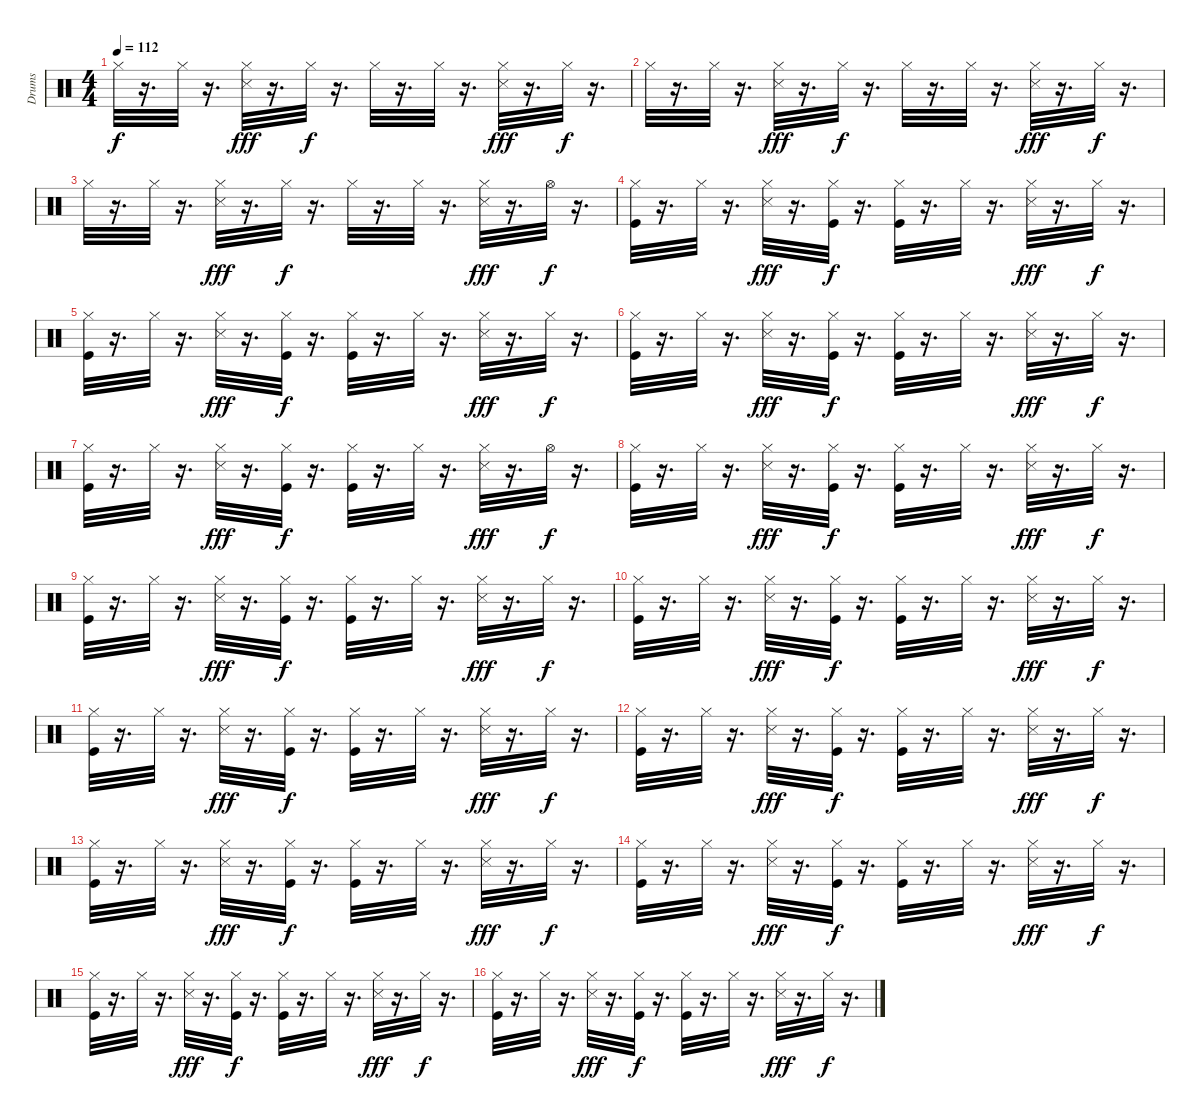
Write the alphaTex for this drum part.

\track ("Drums" "Drums") {instrument percussion}
\staff {score}
\articulation defaults
\ts (4 4)
\tempo 112
\clef neutral
\ks c "Hi-Hat (closed)".32{dy f}
r.16{d} "Hi-Hat (closed)".32 r.16{d} ("Hi-Hat (closed)" "Snare (side stick) 3").32{dy fff} r.16{d} "Hi-Hat (closed)".32{dy f} r.16{d} "Hi-Hat (closed)".32 r.16{d} "Hi-Hat (closed)".32 r.16{d} ("Snare (side stick) 3" "Hi-Hat (closed)").32{dy fff} r.16{d} "Hi-Hat (closed)".32{dy f} r.16{d} |
"Hi-Hat (closed)".32 r.16{d} "Hi-Hat (closed)".32 r.16{d} ("Hi-Hat (closed)" "Snare (side stick) 3").32{dy fff} r.16{d} "Hi-Hat (closed)".32{dy f} r.16{d} "Hi-Hat (closed)".32 r.16{d} "Hi-Hat (closed)".32 r.16{d} ("Hi-Hat (closed)" "Snare (side stick) 3").32{dy fff} r.16{d} "Hi-Hat (closed)".32{dy f} r.16{d} |
"Hi-Hat (closed)".32 r.16{d} "Hi-Hat (closed)".32 r.16{d} ("Hi-Hat (closed)" "Snare (side stick) 3").32{dy fff} r.16{d} "Hi-Hat (closed)".32{dy f} r.16{d} "Hi-Hat (closed)".32 r.16{d} "Hi-Hat (closed)".32 r.16{d} ("Snare (side stick) 3" "Hi-Hat (closed)").32{dy fff} r.16{d} "Hi-Hat (open)".32{dy f} r.16{d} |
("Kick (hit)" "Hi-Hat (closed)").32 r.16{d} "Hi-Hat (closed)".32 r.16{d} ("Hi-Hat (closed)" "Snare (side stick) 3").32{dy fff} r.16{d} ("Kick (hit)" "Hi-Hat (closed)").32{dy f} r.16{d} ("Kick (hit)" "Hi-Hat (closed)").32 r.16{d} "Hi-Hat (closed)".32 r.16{d} ("Snare (side stick) 3" "Hi-Hat (closed)").32{dy fff} r.16{d} "Hi-Hat (closed)".32{dy f} r.16{d} |
("Kick (hit)" "Hi-Hat (closed)").32 r.16{d} "Hi-Hat (closed)".32 r.16{d} ("Hi-Hat (closed)" "Snare (side stick) 3").32{dy fff} r.16{d} ("Kick (hit)" "Hi-Hat (closed)").32{dy f} r.16{d} ("Kick (hit)" "Hi-Hat (closed)").32 r.16{d} "Hi-Hat (closed)".32 r.16{d} ("Hi-Hat (closed)" "Snare (side stick) 3").32{dy fff} r.16{d} "Hi-Hat (closed)".32{dy f} r.16{d} |
("Kick (hit)" "Hi-Hat (closed)").32 r.16{d} "Hi-Hat (closed)".32 r.16{d} ("Snare (side stick) 3" "Hi-Hat (closed)").32{dy fff} r.16{d} ("Kick (hit)" "Hi-Hat (closed)").32{dy f} r.16{d} ("Kick (hit)" "Hi-Hat (closed)").32 r.16{d} "Hi-Hat (closed)".32 r.16{d} ("Snare (side stick) 3" "Hi-Hat (closed)").32{dy fff} r.16{d} "Hi-Hat (closed)".32{dy f} r.16{d} |
("Kick (hit)" "Hi-Hat (closed)").32 r.16{d} "Hi-Hat (closed)".32 r.16{d} ("Snare (side stick) 3" "Hi-Hat (closed)").32{dy fff} r.16{d} ("Hi-Hat (closed)" "Kick (hit)").32{dy f} r.16{d} ("Hi-Hat (closed)" "Kick (hit)").32 r.16{d} "Hi-Hat (closed)".32 r.16{d} ("Hi-Hat (closed)" "Snare (side stick) 3").32{dy fff} r.16{d} "Hi-Hat (open)".32{dy f} r.16{d} |
("Kick (hit)" "Hi-Hat (closed)").32 r.16{d} "Hi-Hat (closed)".32 r.16{d} ("Snare (side stick) 3" "Hi-Hat (closed)").32{dy fff} r.16{d} ("Hi-Hat (closed)" "Kick (hit)").32{dy f} r.16{d} ("Hi-Hat (closed)" "Kick (hit)").32 r.16{d} "Hi-Hat (closed)".32 r.16{d} ("Hi-Hat (closed)" "Snare (side stick) 3").32{dy fff} r.16{d} "Hi-Hat (closed)".32{dy f} r.16{d} |
("Kick (hit)" "Hi-Hat (closed)").32 r.16{d} "Hi-Hat (closed)".32 r.16{d} ("Snare (side stick) 3" "Hi-Hat (closed)").32{dy fff} r.16{d} ("Hi-Hat (closed)" "Kick (hit)").32{dy f} r.16{d} ("Hi-Hat (closed)" "Kick (hit)").32 r.16{d} "Hi-Hat (closed)".32 r.16{d} ("Hi-Hat (closed)" "Snare (side stick) 3").32{dy fff} r.16{d} "Hi-Hat (closed)".32{dy f} r.16{d} |
("Kick (hit)" "Hi-Hat (closed)").32 r.16{d} "Hi-Hat (closed)".32 r.16{d} ("Snare (side stick) 3" "Hi-Hat (closed)").32{dy fff} r.16{d} ("Hi-Hat (closed)" "Kick (hit)").32{dy f} r.16{d} ("Hi-Hat (closed)" "Kick (hit)").32 r.16{d} "Hi-Hat (closed)".32 r.16{d} ("Hi-Hat (closed)" "Snare (side stick) 3").32{dy fff} r.16{d} "Hi-Hat (closed)".32{dy f} r.16{d} |
("Kick (hit)" "Hi-Hat (closed)").32 r.16{d} "Hi-Hat (closed)".32 r.16{d} ("Snare (side stick) 3" "Hi-Hat (closed)").32{dy fff} r.16{d} ("Hi-Hat (closed)" "Kick (hit)").32{dy f} r.16{d} ("Hi-Hat (closed)" "Kick (hit)").32 r.16{d} "Hi-Hat (closed)".32 r.16{d} ("Hi-Hat (closed)" "Snare (side stick) 3").32{dy fff} r.16{d} "Hi-Hat (closed)".32{dy f} r.16{d} |
("Kick (hit)" "Hi-Hat (closed)").32 r.16{d} "Hi-Hat (closed)".32 r.16{d} ("Snare (side stick) 3" "Hi-Hat (closed)").32{dy fff} r.16{d} ("Hi-Hat (closed)" "Kick (hit)").32{dy f} r.16{d} ("Hi-Hat (closed)" "Kick (hit)").32 r.16{d} "Hi-Hat (closed)".32 r.16{d} ("Hi-Hat (closed)" "Snare (side stick) 3").32{dy fff} r.16{d} "Hi-Hat (closed)".32{dy f} r.16{d} |
("Kick (hit)" "Hi-Hat (closed)").32 r.16{d} "Hi-Hat (closed)".32 r.16{d} ("Snare (side stick) 3" "Hi-Hat (closed)").32{dy fff} r.16{d} ("Hi-Hat (closed)" "Kick (hit)").32{dy f} r.16{d} ("Hi-Hat (closed)" "Kick (hit)").32 r.16{d} "Hi-Hat (closed)".32 r.16{d} ("Hi-Hat (closed)" "Snare (side stick) 3").32{dy fff} r.16{d} "Hi-Hat (closed)".32{dy f} r.16{d} |
("Kick (hit)" "Hi-Hat (closed)").32 r.16{d} "Hi-Hat (closed)".32 r.16{d} ("Snare (side stick) 3" "Hi-Hat (closed)").32{dy fff} r.16{d} ("Hi-Hat (closed)" "Kick (hit)").32{dy f} r.16{d} ("Hi-Hat (closed)" "Kick (hit)").32 r.16{d} "Hi-Hat (closed)".32 r.16{d} ("Hi-Hat (closed)" "Snare (side stick) 3").32{dy fff} r.16{d} "Hi-Hat (closed)".32{dy f} r.16{d} |
("Kick (hit)" "Hi-Hat (closed)").32 r.16{d} "Hi-Hat (closed)".32 r.16{d} ("Snare (side stick) 3" "Hi-Hat (closed)").32{dy fff} r.16{d} ("Hi-Hat (closed)" "Kick (hit)").32{dy f} r.16{d} ("Hi-Hat (closed)" "Kick (hit)").32 r.16{d} "Hi-Hat (closed)".32 r.16{d} ("Hi-Hat (closed)" "Snare (side stick) 3").32{dy fff} r.16{d} "Hi-Hat (closed)".32{dy f} r.16{d} |
("Kick (hit)" "Hi-Hat (closed)").32 r.16{d} "Hi-Hat (closed)".32 r.16{d} ("Snare (side stick) 3" "Hi-Hat (closed)").32{dy fff} r.16{d} ("Hi-Hat (closed)" "Kick (hit)").32{dy f} r.16{d} ("Hi-Hat (closed)" "Kick (hit)").32 r.16{d} "Hi-Hat (closed)".32 r.16{d} ("Hi-Hat (closed)" "Snare (side stick) 3").32{dy fff} r.16{d} "Hi-Hat (closed)".32{dy f} r.16{d}
